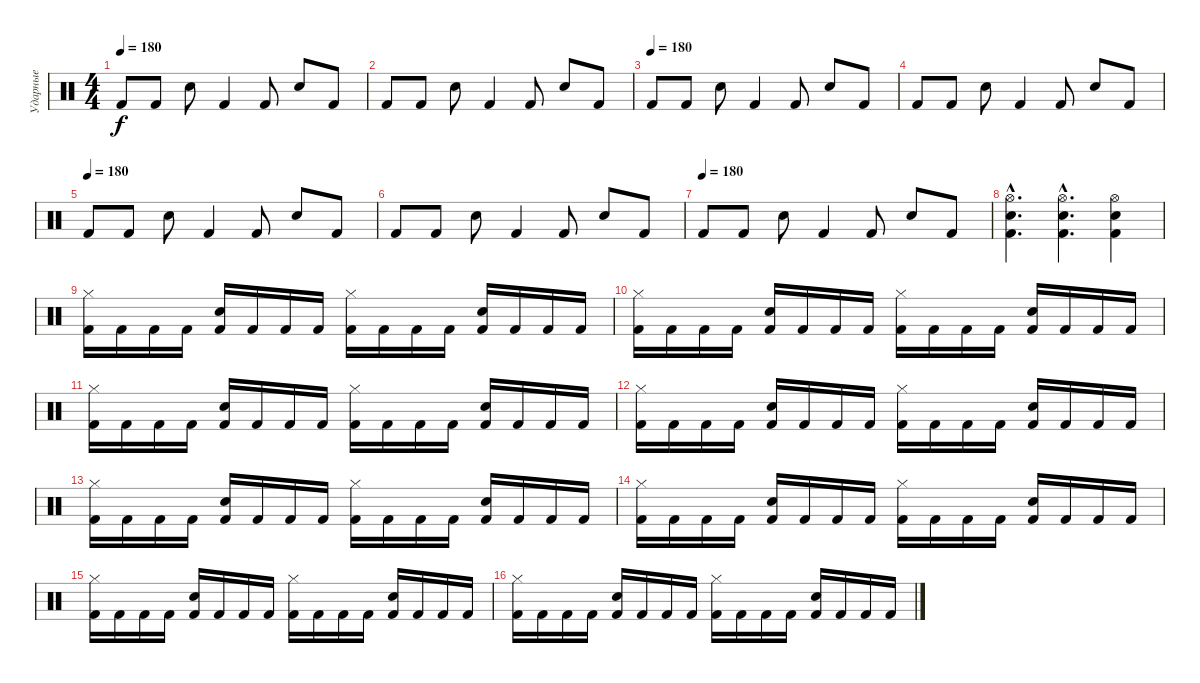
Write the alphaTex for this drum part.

\track ("Ударные" "Ударные") {instrument percussion}
\staff {score}
\articulation defaults
\ts (4 4)
\tempo 180
\clef neutral
\ks c "Kick (hit) 2".8{dy f} "Kick (hit) 2".8 "Snare (hit) 2".8 "Kick (hit) 2".4 "Kick (hit) 2".8 "Snare (hit) 2".8 "Kick (hit) 2".8
|
"Kick (hit) 2".8 "Kick (hit) 2".8 "Snare (hit) 2".8 "Kick (hit) 2".4 "Kick (hit) 2".8 "Snare (hit) 2".8 "Kick (hit) 2".8 |
\tempo (180)
"Kick (hit) 2".8 "Kick (hit) 2".8 "Snare (hit) 2".8 "Kick (hit) 2".4 "Kick (hit) 2".8 "Snare (hit) 2".8 "Kick (hit) 2".8 |
"Kick (hit) 2".8 "Kick (hit) 2".8 "Snare (hit) 2".8 "Kick (hit) 2".4 "Kick (hit) 2".8 "Snare (hit) 2".8 "Kick (hit) 2".8 |
\tempo (180)
"Kick (hit) 2".8 "Kick (hit) 2".8 "Snare (hit) 2".8 "Kick (hit) 2".4 "Kick (hit) 2".8 "Snare (hit) 2".8 "Kick (hit) 2".8 |
"Kick (hit) 2".8 "Kick (hit) 2".8 "Snare (hit) 2".8 "Kick (hit) 2".4 "Kick (hit) 2".8 "Snare (hit) 2".8 "Kick (hit) 2".8 |
\tempo (180)
"Kick (hit) 2".8 "Kick (hit) 2".8 "Snare (hit) 2".8 "Kick (hit) 2".4 "Kick (hit) 2".8 "Snare (hit) 2".8 "Kick (hit) 2".8 |
("Hi-Hat (open)"{hac} "Snare (hit) 2"{hac} "Kick (hit) 2"{hac}).4{d} ("Hi-Hat (open)"{hac} "Snare (hit) 2"{hac} "Kick (hit) 2"{hac}).4{d} ("Hi-Hat (open)" "Snare (hit) 2" "Kick (hit) 2").4 |
("Hi-Hat (closed)" "Kick (hit) 2").16 "Kick (hit) 2".16 "Kick (hit) 2".16 "Kick (hit) 2".16 ("Snare (hit) 2" "Kick (hit) 2").16 "Kick (hit) 2".16 "Kick (hit) 2".16 "Kick (hit) 2".16 ("Hi-Hat (closed)" "Kick (hit) 2").16 "Kick (hit) 2".16 "Kick (hit) 2".16 "Kick (hit) 2".16 ("Snare (hit) 2" "Kick (hit) 2").16 "Kick (hit) 2".16 "Kick (hit) 2".16 "Kick (hit) 2".16 |
("Hi-Hat (closed)" "Kick (hit) 2").16 "Kick (hit) 2".16 "Kick (hit) 2".16 "Kick (hit) 2".16 ("Snare (hit) 2" "Kick (hit) 2").16 "Kick (hit) 2".16 "Kick (hit) 2".16 "Kick (hit) 2".16 ("Hi-Hat (closed)" "Kick (hit) 2").16 "Kick (hit) 2".16 "Kick (hit) 2".16 "Kick (hit) 2".16 ("Snare (hit) 2" "Kick (hit) 2").16 "Kick (hit) 2".16 "Kick (hit) 2".16 "Kick (hit) 2".16 |
("Hi-Hat (closed)" "Kick (hit) 2").16 "Kick (hit) 2".16 "Kick (hit) 2".16 "Kick (hit) 2".16 ("Snare (hit) 2" "Kick (hit) 2").16 "Kick (hit) 2".16 "Kick (hit) 2".16 "Kick (hit) 2".16 ("Hi-Hat (closed)" "Kick (hit) 2").16 "Kick (hit) 2".16 "Kick (hit) 2".16 "Kick (hit) 2".16 ("Snare (hit) 2" "Kick (hit) 2").16 "Kick (hit) 2".16 "Kick (hit) 2".16 "Kick (hit) 2".16 |
("Hi-Hat (closed)" "Kick (hit) 2").16 "Kick (hit) 2".16 "Kick (hit) 2".16 "Kick (hit) 2".16 ("Snare (hit) 2" "Kick (hit) 2").16 "Kick (hit) 2".16 "Kick (hit) 2".16 "Kick (hit) 2".16 ("Hi-Hat (closed)" "Kick (hit) 2").16 "Kick (hit) 2".16 "Kick (hit) 2".16 "Kick (hit) 2".16 ("Snare (hit) 2" "Kick (hit) 2").16 "Kick (hit) 2".16 "Kick (hit) 2".16 "Kick (hit) 2".16 |
("Hi-Hat (closed)" "Kick (hit) 2").16 "Kick (hit) 2".16 "Kick (hit) 2".16 "Kick (hit) 2".16 ("Snare (hit) 2" "Kick (hit) 2").16 "Kick (hit) 2".16 "Kick (hit) 2".16 "Kick (hit) 2".16 ("Hi-Hat (closed)" "Kick (hit) 2").16 "Kick (hit) 2".16 "Kick (hit) 2".16 "Kick (hit) 2".16 ("Snare (hit) 2" "Kick (hit) 2").16 "Kick (hit) 2".16 "Kick (hit) 2".16 "Kick (hit) 2".16 |
("Hi-Hat (closed)" "Kick (hit) 2").16 "Kick (hit) 2".16 "Kick (hit) 2".16 "Kick (hit) 2".16 ("Snare (hit) 2" "Kick (hit) 2").16 "Kick (hit) 2".16 "Kick (hit) 2".16 "Kick (hit) 2".16 ("Hi-Hat (closed)" "Kick (hit) 2").16 "Kick (hit) 2".16 "Kick (hit) 2".16 "Kick (hit) 2".16 ("Snare (hit) 2" "Kick (hit) 2").16 "Kick (hit) 2".16 "Kick (hit) 2".16 "Kick (hit) 2".16 |
("Hi-Hat (closed)" "Kick (hit) 2").16 "Kick (hit) 2".16 "Kick (hit) 2".16 "Kick (hit) 2".16 ("Snare (hit) 2" "Kick (hit) 2").16 "Kick (hit) 2".16 "Kick (hit) 2".16 "Kick (hit) 2".16 ("Hi-Hat (closed)" "Kick (hit) 2").16 "Kick (hit) 2".16 "Kick (hit) 2".16 "Kick (hit) 2".16 ("Snare (hit) 2" "Kick (hit) 2").16 "Kick (hit) 2".16 "Kick (hit) 2".16 "Kick (hit) 2".16 |
("Hi-Hat (closed)" "Kick (hit) 2").16 "Kick (hit) 2".16 "Kick (hit) 2".16 "Kick (hit) 2".16 ("Snare (hit) 2" "Kick (hit) 2").16 "Kick (hit) 2".16 "Kick (hit) 2".16 "Kick (hit) 2".16 ("Hi-Hat (closed)" "Kick (hit) 2").16 "Kick (hit) 2".16 "Kick (hit) 2".16 "Kick (hit) 2".16 ("Snare (hit) 2" "Kick (hit) 2").16 "Kick (hit) 2".16 "Kick (hit) 2".16 "Kick (hit) 2".16
